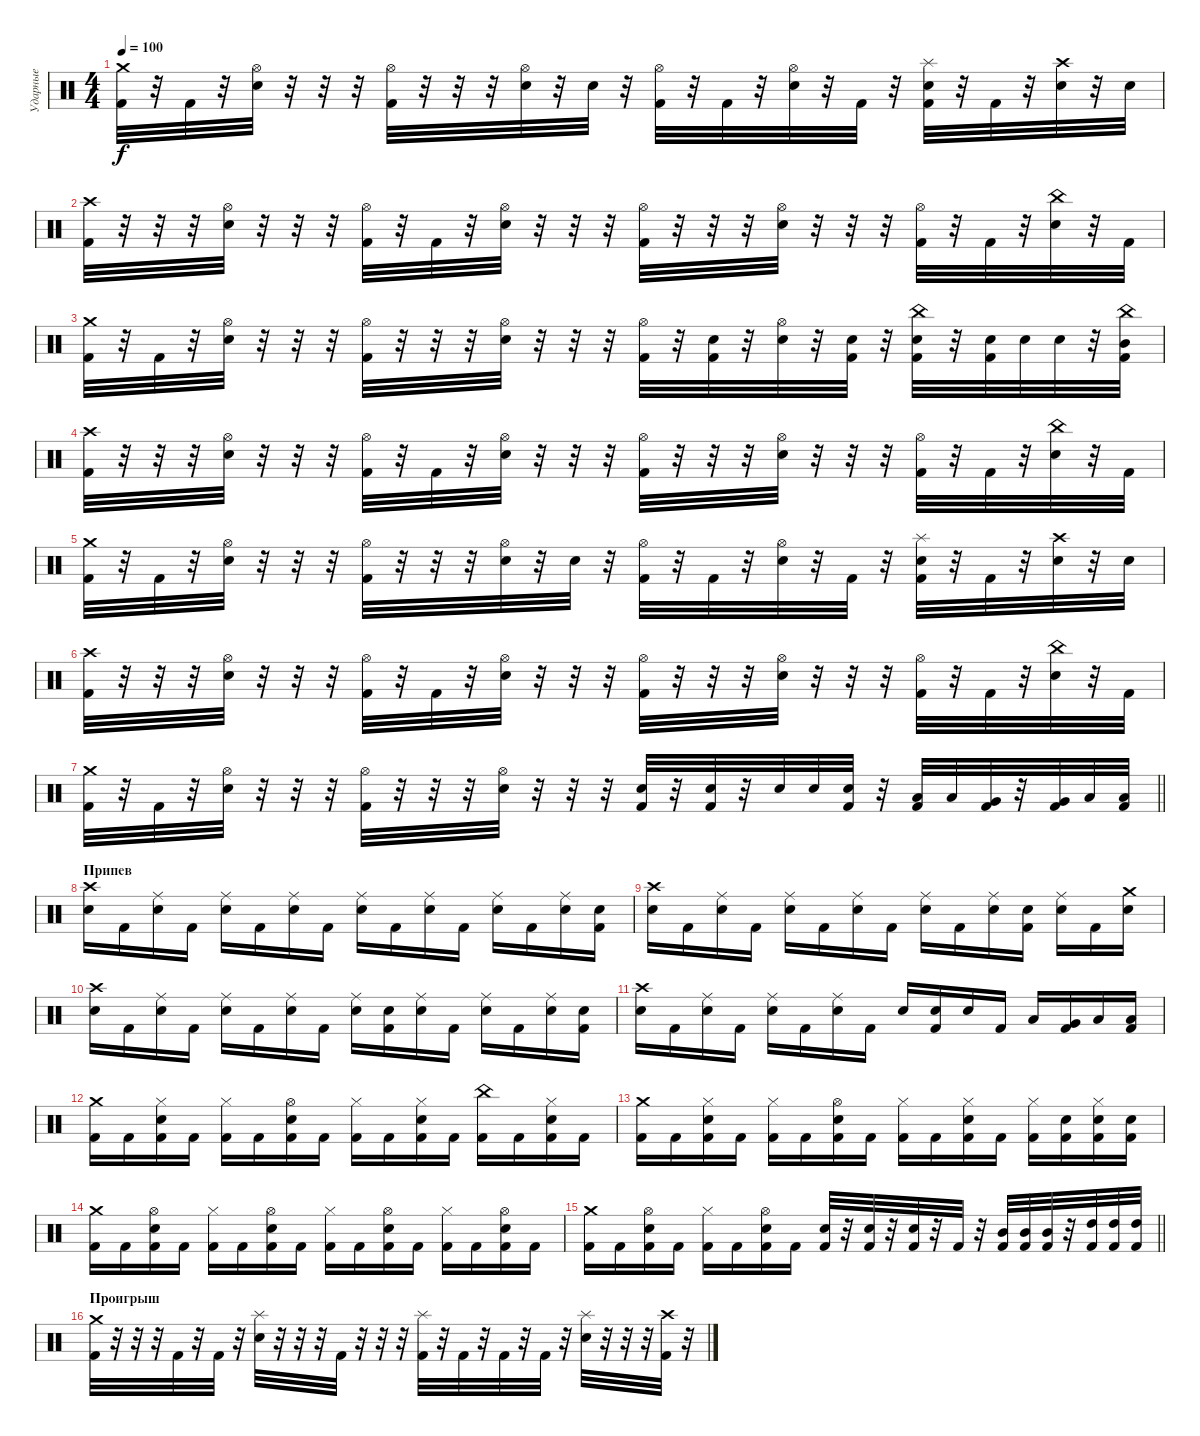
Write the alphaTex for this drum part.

\track ("Ударные" "Ударные") {instrument percussion}
\staff {score}
\articulation defaults
\ts (4 4)
\tempo 100
\clef neutral
\ks c
("Crash medium (hit)" "Kick (hit) 2").32{dy f} r.32 "Kick (hit) 2".32 r.32 ("Hi-Hat (open)" "Snare (hit) 2").32 r.32 r.32 r.32 ("Hi-Hat (open)" "Kick (hit) 2").32 r.32 r.32 r.32 ("Hi-Hat (open)" "Snare (hit) 2").32 r.32 "Snare (hit) 2".32 r.32 ("Hi-Hat (open)" "Kick (hit) 2").32 r.32 "Kick (hit) 2".32 r.32 ("Hi-Hat (open)" "Snare (hit) 2").32 r.32 "Kick (hit) 2".32 r.32 ("Splash (hit)" "Snare (hit) 2" "Kick (hit) 2").32 r.32 "Kick (hit) 2".32 r.32 ("Crash high (hit)" "Snare (hit) 2").32 r.32 "Snare (hit) 2".32 |
("Crash high (hit)" "Kick (hit) 2").32 r.32 r.32 r.32 ("Hi-Hat (open)" "Snare (hit) 2").32 r.32 r.32 r.32 ("Hi-Hat (open)" "Kick (hit) 2").32 r.32 "Kick (hit) 2".32 r.32 ("Hi-Hat (open)" "Snare (hit) 2").32 r.32 r.32 r.32 ("Hi-Hat (open)" "Kick (hit) 2").32 r.32 r.32 r.32 ("Hi-Hat (open)" "Snare (hit) 2").32 r.32 r.32 r.32 ("Hi-Hat (open)" "Kick (hit) 2").32 r.32 "Kick (hit) 2".32 r.32 ("China (hit)" "Snare (hit) 2").32 r.32 "Kick (hit) 2".32 |
("Crash medium (hit)" "Kick (hit) 2").32 r.32 "Kick (hit) 2".32 r.32 ("Hi-Hat (open)" "Snare (hit) 2").32 r.32 r.32 r.32 ("Hi-Hat (open)" "Kick (hit) 2").32 r.32 r.32 r.32 ("Hi-Hat (open)" "Snare (hit) 2").32 r.32 r.32 r.32 ("Hi-Hat (open)" "Kick (hit) 2").32 r.32 ("Snare (hit) 2" "Kick (hit) 2").32 r.32 ("Hi-Hat (open)" "Snare (hit) 2").32 r.32 ("Snare (hit) 2" "Kick (hit) 2").32 r.32 ("China (hit)" "Snare (hit) 2" "Kick (hit) 2").32 r.32 ("Snare (hit) 2" "Kick (hit) 2").32 "Snare (hit) 2".32 "Snare (hit) 2".32 r.32 ("China (hit)" "Mid Tom (hit)" "Kick (hit) 2").32 |
("Crash high (hit)" "Kick (hit) 2").32 r.32 r.32 r.32 ("Hi-Hat (open)" "Snare (hit) 2").32 r.32 r.32 r.32 ("Hi-Hat (open)" "Kick (hit) 2").32 r.32 "Kick (hit) 2".32 r.32 ("Hi-Hat (open)" "Snare (hit) 2").32 r.32 r.32 r.32 ("Hi-Hat (open)" "Kick (hit) 2").32 r.32 r.32 r.32 ("Hi-Hat (open)" "Snare (hit) 2").32 r.32 r.32 r.32 ("Hi-Hat (open)" "Kick (hit) 2").32 r.32 "Kick (hit) 2".32 r.32 ("China (hit)" "Snare (hit) 2").32 r.32 "Kick (hit) 2".32 |
("Crash medium (hit)" "Kick (hit) 2").32 r.32 "Kick (hit) 2".32 r.32 ("Hi-Hat (open)" "Snare (hit) 2").32 r.32 r.32 r.32 ("Hi-Hat (open)" "Kick (hit) 2").32 r.32 r.32 r.32 ("Hi-Hat (open)" "Snare (hit) 2").32 r.32 "Snare (hit) 2".32 r.32 ("Hi-Hat (open)" "Kick (hit) 2").32 r.32 "Kick (hit) 2".32 r.32 ("Hi-Hat (open)" "Snare (hit) 2").32 r.32 "Kick (hit) 2".32 r.32 ("Splash (hit)" "Snare (hit) 2" "Kick (hit) 2").32 r.32 "Kick (hit) 2".32 r.32 ("Crash high (hit)" "Snare (hit) 2").32 r.32 "Snare (hit) 2".32 |
("Crash high (hit)" "Kick (hit) 2").32 r.32 r.32 r.32 ("Hi-Hat (open)" "Snare (hit) 2").32 r.32 r.32 r.32 ("Hi-Hat (open)" "Kick (hit) 2").32 r.32 "Kick (hit) 2".32 r.32 ("Hi-Hat (open)" "Snare (hit) 2").32 r.32 r.32 r.32 ("Hi-Hat (open)" "Kick (hit) 2").32 r.32 r.32 r.32 ("Hi-Hat (open)" "Snare (hit) 2").32 r.32 r.32 r.32 ("Hi-Hat (open)" "Kick (hit) 2").32 r.32 "Kick (hit) 2".32 r.32 ("China (hit)" "Snare (hit) 2").32 r.32 "Kick (hit) 2".32 |
\barLineRight lightlight
("Crash medium (hit)" "Kick (hit) 2").32 r.32 "Kick (hit) 2".32 r.32 ("Hi-Hat (open)" "Snare (hit) 2").32 r.32 r.32 r.32 ("Hi-Hat (open)" "Kick (hit) 2").32 r.32 r.32 r.32 ("Hi-Hat (open)" "Snare (hit) 2").32 r.32 r.32 r.32 ("Snare (hit) 2" "Kick (hit) 2").32 r.32 ("Snare (hit) 2" "Kick (hit) 2").32 r.32 "Snare (hit) 2".32 "Snare (hit) 2".32 ("Snare (hit) 2" "Kick (hit) 2").32 r.32 ("Low Tom (hit)" "Kick (hit) 2").32 "Low Tom (hit)".32 ("Very Low Tom (hit)" "Kick (hit) 2").32 r.32 ("Very Low Tom (hit)" "Kick (hit) 2").32 "Low Floor Tom (hit)".32 ("Low Floor Tom (hit)" "Kick (hit) 2").32 |
\section ("" "Припев")
("Crash high (hit)" "Snare (hit) 2").16 "Kick (hit) 2".16 ("Ride (middle)" "Snare (hit) 2").16 "Kick (hit) 2".16 ("Ride (middle)" "Snare (hit) 2").16 "Kick (hit) 2".16 ("Ride (middle)" "Snare (hit) 2").16 "Kick (hit) 2".16 ("Ride (middle)" "Snare (hit) 2").16 "Kick (hit) 2".16 ("Ride (middle)" "Snare (hit) 2").16 "Kick (hit) 2".16 ("Ride (middle)" "Snare (hit) 2").16 "Kick (hit) 2".16 ("Ride (middle)" "Snare (hit) 2").16 ("Snare (hit) 2" "Kick (hit) 2").16 |
("Crash high (hit)" "Snare (hit) 2").16 "Kick (hit) 2".16 ("Ride (middle)" "Snare (hit) 2").16 "Kick (hit) 2".16 ("Ride (middle)" "Snare (hit) 2").16 "Kick (hit) 2".16 ("Ride (middle)" "Snare (hit) 2").16 "Kick (hit) 2".16 ("Ride (middle)" "Snare (hit) 2").16 "Kick (hit) 2".16 ("Ride (middle)" "Snare (hit) 2").16 ("Snare (hit) 2" "Kick (hit) 2").16 ("Ride (middle)" "Snare (hit) 2").16 "Kick (hit) 2".16 ("Crash medium (hit)" "Snare (hit) 2").16 |
("Crash high (hit)" "Snare (hit) 2").16 "Kick (hit) 2".16 ("Ride (middle)" "Snare (hit) 2").16 "Kick (hit) 2".16 ("Ride (middle)" "Snare (hit) 2").16 "Kick (hit) 2".16 ("Ride (middle)" "Snare (hit) 2").16 "Kick (hit) 2".16 ("Ride (middle)" "Snare (hit) 2").16 ("Snare (hit) 2" "Kick (hit) 2").16 ("Ride (middle)" "Snare (hit) 2").16 "Kick (hit) 2".16 ("Ride (middle)" "Snare (hit) 2").16 "Kick (hit) 2".16 ("Ride (middle)" "Snare (hit) 2").16 ("Snare (hit) 2" "Kick (hit) 2").16 |
("Crash high (hit)" "Snare (hit) 2").16 "Kick (hit) 2".16 ("Ride (middle)" "Snare (hit) 2").16 "Kick (hit) 2".16 ("Ride (middle)" "Snare (hit) 2").16 "Kick (hit) 2".16 ("Ride (middle)" "Snare (hit) 2").16 "Kick (hit) 2".16 "Snare (hit) 2".16 ("Snare (hit) 2" "Kick (hit) 2").16 "Snare (hit) 2".16 "Kick (hit) 2".16 "Low Tom (hit)".16 ("Very Low Tom (hit)" "Kick (hit) 2").16 "Low Tom (hit)".16 ("Low Floor Tom (hit)" "Kick (hit) 2").16 |
("Crash medium (hit)" "Kick (hit) 2").16 "Kick (hit) 2".16 ("Hi-Hat (closed)" "Snare (hit) 2" "Kick (hit) 2").16 "Kick (hit) 2".16 ("Hi-Hat (closed)" "Kick (hit) 2").16 "Kick (hit) 2".16 ("Hi-Hat (open)" "Snare (hit) 2" "Kick (hit) 2").16 "Kick (hit) 2".16 ("Hi-Hat (closed)" "Kick (hit) 2").16 "Kick (hit) 2".16 ("Hi-Hat (closed)" "Snare (hit) 2" "Kick (hit) 2").16 "Kick (hit) 2".16 ("China (hit)" "Kick (hit) 2").16 "Kick (hit) 2".16 ("Hi-Hat (closed)" "Snare (hit) 2" "Kick (hit) 2").16 "Kick (hit) 2".16 |
("Crash medium (hit)" "Kick (hit) 2").16 "Kick (hit) 2".16 ("Hi-Hat (closed)" "Snare (hit) 2" "Kick (hit) 2").16 "Kick (hit) 2".16 ("Hi-Hat (closed)" "Kick (hit) 2").16 "Kick (hit) 2".16 ("Hi-Hat (open)" "Snare (hit) 2" "Kick (hit) 2").16 "Kick (hit) 2".16 ("Hi-Hat (closed)" "Kick (hit) 2").16 "Kick (hit) 2".16 ("Hi-Hat (closed)" "Snare (hit) 2" "Kick (hit) 2").16 "Kick (hit) 2".16 ("Hi-Hat (closed)" "Kick (hit) 2").16 ("Snare (hit) 2" "Kick (hit) 2").16 ("Hi-Hat (closed)" "Snare (hit) 2" "Kick (hit) 2").16 ("Snare (hit) 2" "Kick (hit) 2").16 |
("Crash medium (hit)" "Kick (hit) 2").16 "Kick (hit) 2".16 ("Hi-Hat (open)" "Snare (hit) 2" "Kick (hit) 2").16 "Kick (hit) 2".16 ("Hi-Hat (closed)" "Kick (hit) 2").16 "Kick (hit) 2".16 ("Hi-Hat (open)" "Snare (hit) 2" "Kick (hit) 2").16 "Kick (hit) 2".16 ("Hi-Hat (closed)" "Kick (hit) 2").16 "Kick (hit) 2".16 ("Hi-Hat (open)" "Snare (hit) 2" "Kick (hit) 2").16 "Kick (hit) 2".16 ("Hi-Hat (closed)" "Kick (hit) 2").16 "Kick (hit) 2".16 ("Hi-Hat (open)" "Snare (hit) 2" "Kick (hit) 2").16 "Kick (hit) 2".16 |
\barLineRight lightlight
("Crash medium (hit)" "Kick (hit) 2").16 "Kick (hit) 2".16 ("Hi-Hat (open)" "Snare (hit) 2" "Kick (hit) 2").16 "Kick (hit) 2".16 ("Hi-Hat (closed)" "Kick (hit) 2").16 "Kick (hit) 2".16 ("Hi-Hat (open)" "Snare (hit) 2" "Kick (hit) 2").16 "Kick (hit) 2".16 ("Snare (hit) 2" "Kick (hit) 2").32 r.32 ("Snare (hit) 2" "Kick (hit) 2").32 r.32 ("Snare (hit) 2" "Kick (hit) 2").32 r.32 "Kick (hit) 2".32 r.32 ("Mid Tom (hit)" "Kick (hit) 2").32 ("Mid Tom (hit)" "Kick (hit) 2").32 ("Mid Tom (hit)" "Kick (hit) 2").32 r.32 ("High Tom (hit)" "Kick (hit) 2").32 ("High Tom (hit)" "Kick (hit) 2").32 ("High Tom (hit)" "Kick (hit) 2").32 |
\section ("" "Проигрыш")
("Crash medium (hit)" "Kick (hit) 2").32 r.32 r.32 r.32 "Kick (hit) 2".32 r.32 "Kick (hit) 2".32 r.32 ("Splash (hit)" "Snare (hit) 2").32 r.32 r.32 r.32 "Kick (hit) 2".32 r.32 r.32 r.32 ("Splash (hit)" "Kick (hit) 2").32 r.32 "Kick (hit) 2".32 r.32 "Kick (hit) 2".32 r.32 "Kick (hit) 2".32 r.32 ("Splash (hit)" "Snare (hit) 2").32 r.32 r.32 r.32 ("Crash high (hit)" "Kick (hit) 2").32 r.32
